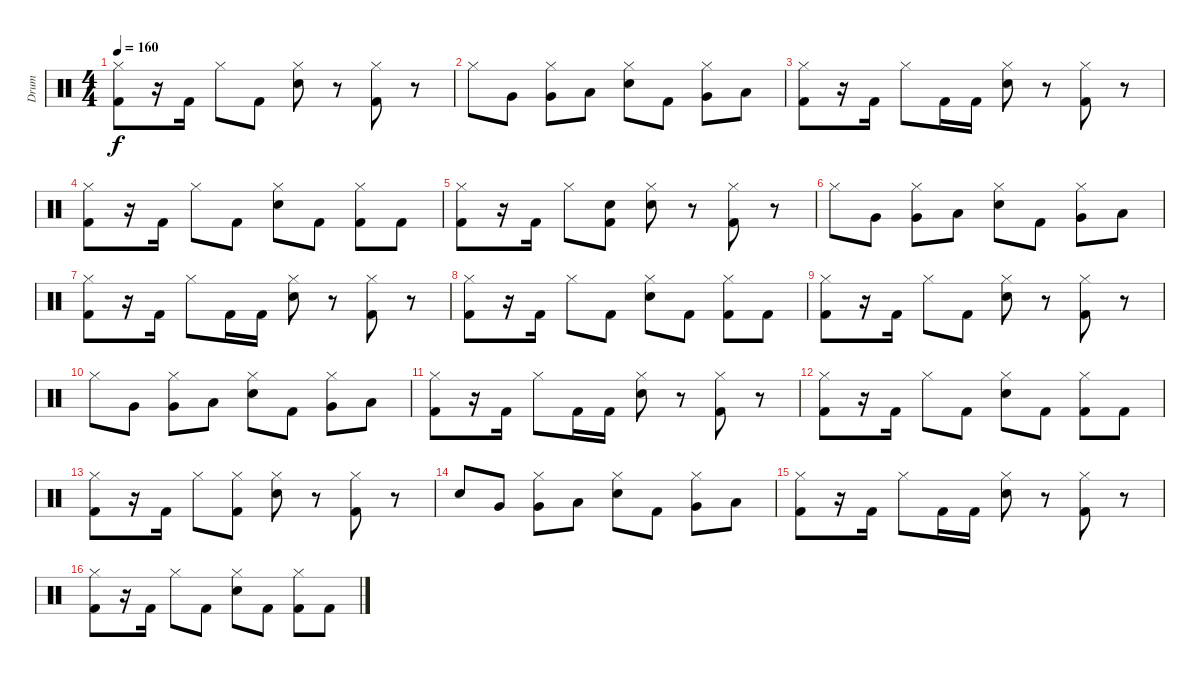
\track ("Drum" "Drum") {instrument percussion}
\staff {score}
\articulation defaults
\ts (4 4)
\tempo 160
\clef neutral
\ks c
("Kick (hit) 2" "Hi-Hat (closed)").8{dy f} r.16 "Kick (hit) 2".16 "Hi-Hat (closed)".8 "Kick (hit) 2".8 ("Electric Snare (hit)" "Hi-Hat (closed)").8 r.8 ("Kick (hit) 2" "Hi-Hat (closed)").8 r.8 |
"Hi-Hat (closed)".8 "Very Low Tom (hit)".8 ("Very Low Tom (hit)" "Hi-Hat (closed)").8 "Low Floor Tom (hit)".8 ("Electric Snare (hit)" "Hi-Hat (closed)").8 "Kick (hit) 2".8 ("Hi-Hat (closed)" "Very Low Tom (hit)").8 "Low Floor Tom (hit)".8 |
("Hi-Hat (closed)" "Kick (hit) 2").8 r.16 "Kick (hit) 2".16 "Hi-Hat (closed)".8 "Kick (hit) 2".16 "Kick (hit) 2".16 ("Electric Snare (hit)" "Hi-Hat (closed)").8 r.8 ("Hi-Hat (closed)" "Kick (hit) 2").8 r.8 |
("Hi-Hat (closed)" "Kick (hit) 2").8 r.16 "Kick (hit) 2".16 "Hi-Hat (closed)".8 "Kick (hit) 2".8 ("Hi-Hat (closed)" "Electric Snare (hit)").8 "Kick (hit) 2".8 ("Kick (hit) 2" "Hi-Hat (closed)").8 "Kick (hit) 2".8 |
("Kick (hit) 2" "Hi-Hat (closed)").8 r.16 "Kick (hit) 2".16 "Hi-Hat (closed)".8 ("Kick (hit) 2" "Snare (hit)").8 ("Hi-Hat (closed)" "Electric Snare (hit)").8 r.8 ("Kick (hit) 2" "Hi-Hat (closed)").8 r.8 |
"Hi-Hat (closed)".8 "Very Low Tom (hit)".8 ("Very Low Tom (hit)" "Hi-Hat (closed)").8 "Low Floor Tom (hit)".8 ("Hi-Hat (closed)" "Electric Snare (hit)").8 "Kick (hit) 2".8 ("Hi-Hat (closed)" "Very Low Tom (hit)").8 "Low Floor Tom (hit)".8 |
("Hi-Hat (closed)" "Kick (hit) 2").8 r.16 "Kick (hit) 2".16 "Hi-Hat (closed)".8 "Kick (hit) 2".16 "Kick (hit) 2".16 ("Hi-Hat (closed)" "Electric Snare (hit)").8 r.8 ("Hi-Hat (closed)" "Kick (hit) 2").8 r.8 |
("Hi-Hat (closed)" "Kick (hit) 2").8 r.16 "Kick (hit) 2".16 "Hi-Hat (closed)".8 "Kick (hit) 2".8 ("Hi-Hat (closed)" "Electric Snare (hit)").8 "Kick (hit) 2".8 ("Hi-Hat (closed)" "Kick (hit) 2").8 "Kick (hit) 2".8 |
("Hi-Hat (closed)" "Kick (hit) 2").8 r.16 "Kick (hit) 2".16 "Hi-Hat (closed)".8 "Kick (hit) 2".8 ("Electric Snare (hit)" "Hi-Hat (closed)").8 r.8 ("Hi-Hat (closed)" "Kick (hit) 2").8 r.8 |
"Hi-Hat (closed)".8 "Very Low Tom (hit)".8 ("Very Low Tom (hit)" "Hi-Hat (closed)").8 "Low Floor Tom (hit)".8 ("Hi-Hat (closed)" "Electric Snare (hit)").8 "Kick (hit) 2".8 ("Very Low Tom (hit)" "Hi-Hat (closed)").8 "Low Floor Tom (hit)".8 |
("Kick (hit) 2" "Hi-Hat (closed)").8 r.16 "Kick (hit) 2".16 "Hi-Hat (closed)".8 "Kick (hit) 2".16 "Kick (hit) 2".16 ("Electric Snare (hit)" "Hi-Hat (closed)").8 r.8 ("Kick (hit) 2" "Hi-Hat (closed)").8 r.8 |
("Hi-Hat (closed)" "Kick (hit) 2").8 r.16 "Kick (hit) 2".16 "Hi-Hat (closed)".8 "Kick (hit) 2".8 ("Electric Snare (hit)" "Hi-Hat (closed)").8 "Kick (hit) 2".8 ("Kick (hit) 2" "Hi-Hat (closed)").8 "Kick (hit) 2".8 |
("Hi-Hat (closed)" "Kick (hit) 2").8 r.16 "Kick (hit) 2".16 "Hi-Hat (closed)".8 ("Hi-Hat (closed)" "Kick (hit) 2").8 ("Electric Snare (hit)" "Hi-Hat (closed)").8 r.8 ("Kick (hit) 2" "Hi-Hat (closed)").8 r.8 |
"Snare (hit)".8 "Very Low Tom (hit)".8 ("Very Low Tom (hit)" "Hi-Hat (closed)").8 "Low Floor Tom (hit)".8 ("Electric Snare (hit)" "Hi-Hat (closed)").8 "Kick (hit) 2".8 ("Hi-Hat (closed)" "Very Low Tom (hit)").8 "Low Floor Tom (hit)".8 |
("Hi-Hat (closed)" "Kick (hit) 2").8 r.16 "Kick (hit) 2".16 "Hi-Hat (closed)".8 "Kick (hit) 2".16 "Kick (hit) 2".16 ("Hi-Hat (closed)" "Electric Snare (hit)").8 r.8 ("Kick (hit) 2" "Hi-Hat (closed)").8 r.8 |
("Hi-Hat (closed)" "Kick (hit) 2").8 r.16 "Kick (hit) 2".16 "Hi-Hat (closed)".8 "Kick (hit) 2".8 ("Electric Snare (hit)" "Hi-Hat (closed)").8 "Kick (hit) 2".8 ("Hi-Hat (closed)" "Kick (hit) 2").8 "Kick (hit) 2".8
